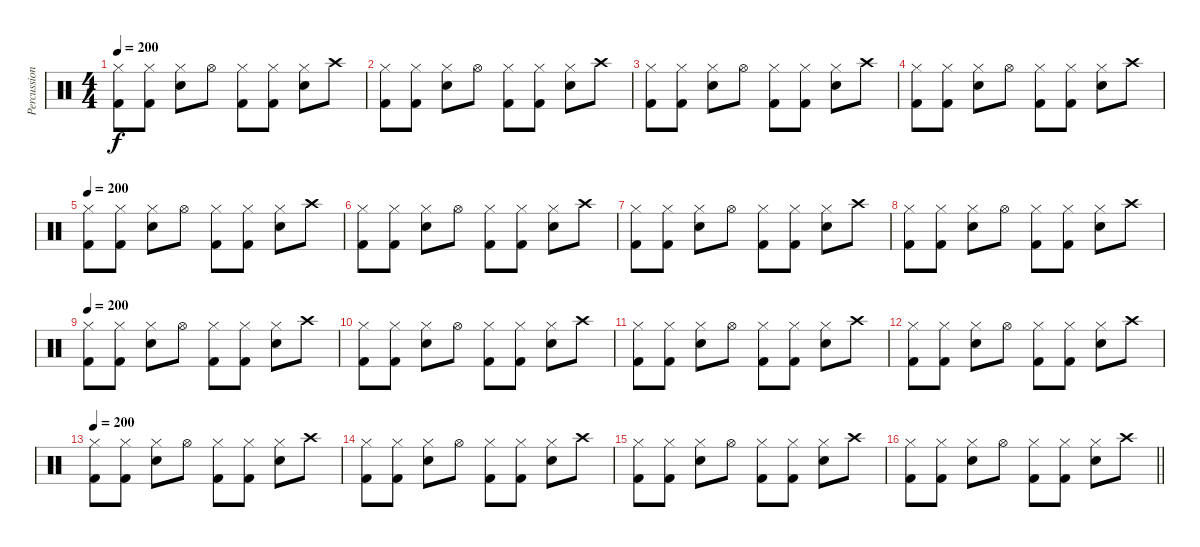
\track ("Percussion" "Percussion") {instrument percussion}
\staff {score}
\articulation defaults
\ts (4 4)
\tempo 200
\clef neutral
\ks c
("Hi-Hat (closed)" "Kick (hit) 2").8{dy f} ("Hi-Hat (closed)" "Kick (hit) 2").8 ("Hi-Hat (closed)" "Snare (hit) 2").8 "Hi-Hat (open)".8 ("Hi-Hat (closed)" "Kick (hit) 2").8 ("Hi-Hat (closed)" "Kick (hit) 2").8 ("Hi-Hat (closed)" "Snare (hit) 2").8 "Crash high (hit)".8 |
("Hi-Hat (closed)" "Kick (hit) 2").8 ("Hi-Hat (closed)" "Kick (hit) 2").8 ("Hi-Hat (closed)" "Snare (hit) 2").8 "Hi-Hat (open)".8 ("Hi-Hat (closed)" "Kick (hit) 2").8 ("Hi-Hat (closed)" "Kick (hit) 2").8 ("Hi-Hat (closed)" "Snare (hit) 2").8 "Crash high (hit)".8 |
("Hi-Hat (closed)" "Kick (hit) 2").8 ("Hi-Hat (closed)" "Kick (hit) 2").8 ("Hi-Hat (closed)" "Snare (hit) 2").8 "Hi-Hat (open)".8 ("Hi-Hat (closed)" "Kick (hit) 2").8 ("Hi-Hat (closed)" "Kick (hit) 2").8 ("Hi-Hat (closed)" "Snare (hit) 2").8 "Crash high (hit)".8 |
("Hi-Hat (closed)" "Kick (hit) 2").8 ("Hi-Hat (closed)" "Kick (hit) 2").8 ("Hi-Hat (closed)" "Snare (hit) 2").8 "Hi-Hat (open)".8 ("Hi-Hat (closed)" "Kick (hit) 2").8 ("Hi-Hat (closed)" "Kick (hit) 2").8 ("Hi-Hat (closed)" "Snare (hit) 2").8 "Crash high (hit)".8 |
\tempo 200
("Hi-Hat (closed)" "Kick (hit) 2").8 ("Hi-Hat (closed)" "Kick (hit) 2").8 ("Hi-Hat (closed)" "Snare (hit) 2").8 "Hi-Hat (open)".8 ("Hi-Hat (closed)" "Kick (hit) 2").8 ("Hi-Hat (closed)" "Kick (hit) 2").8 ("Hi-Hat (closed)" "Snare (hit) 2").8 "Crash high (hit)".8 |
("Hi-Hat (closed)" "Kick (hit) 2").8 ("Hi-Hat (closed)" "Kick (hit) 2").8 ("Hi-Hat (closed)" "Snare (hit) 2").8 "Hi-Hat (open)".8 ("Hi-Hat (closed)" "Kick (hit) 2").8 ("Hi-Hat (closed)" "Kick (hit) 2").8 ("Hi-Hat (closed)" "Snare (hit) 2").8 "Crash high (hit)".8 |
("Hi-Hat (closed)" "Kick (hit) 2").8 ("Hi-Hat (closed)" "Kick (hit) 2").8 ("Hi-Hat (closed)" "Snare (hit) 2").8 "Hi-Hat (open)".8 ("Hi-Hat (closed)" "Kick (hit) 2").8 ("Hi-Hat (closed)" "Kick (hit) 2").8 ("Hi-Hat (closed)" "Snare (hit) 2").8 "Crash high (hit)".8 |
("Hi-Hat (closed)" "Kick (hit) 2").8 ("Hi-Hat (closed)" "Kick (hit) 2").8 ("Hi-Hat (closed)" "Snare (hit) 2").8 "Hi-Hat (open)".8 ("Hi-Hat (closed)" "Kick (hit) 2").8 ("Hi-Hat (closed)" "Kick (hit) 2").8 ("Hi-Hat (closed)" "Snare (hit) 2").8 "Crash high (hit)".8 |
\tempo 200
("Hi-Hat (closed)" "Kick (hit) 2").8 ("Hi-Hat (closed)" "Kick (hit) 2").8 ("Hi-Hat (closed)" "Snare (hit) 2").8 "Hi-Hat (open)".8 ("Hi-Hat (closed)" "Kick (hit) 2").8 ("Hi-Hat (closed)" "Kick (hit) 2").8 ("Hi-Hat (closed)" "Snare (hit) 2").8 "Crash high (hit)".8 |
("Hi-Hat (closed)" "Kick (hit) 2").8 ("Hi-Hat (closed)" "Kick (hit) 2").8 ("Hi-Hat (closed)" "Snare (hit) 2").8 "Hi-Hat (open)".8 ("Hi-Hat (closed)" "Kick (hit) 2").8 ("Hi-Hat (closed)" "Kick (hit) 2").8 ("Hi-Hat (closed)" "Snare (hit) 2").8 "Crash high (hit)".8 |
("Hi-Hat (closed)" "Kick (hit) 2").8 ("Hi-Hat (closed)" "Kick (hit) 2").8 ("Hi-Hat (closed)" "Snare (hit) 2").8 "Hi-Hat (open)".8 ("Hi-Hat (closed)" "Kick (hit) 2").8 ("Hi-Hat (closed)" "Kick (hit) 2").8 ("Hi-Hat (closed)" "Snare (hit) 2").8 "Crash high (hit)".8 |
("Hi-Hat (closed)" "Kick (hit) 2").8 ("Hi-Hat (closed)" "Kick (hit) 2").8 ("Hi-Hat (closed)" "Snare (hit) 2").8 "Hi-Hat (open)".8 ("Hi-Hat (closed)" "Kick (hit) 2").8 ("Hi-Hat (closed)" "Kick (hit) 2").8 ("Hi-Hat (closed)" "Snare (hit) 2").8 "Crash high (hit)".8 |
\tempo 200
("Hi-Hat (closed)" "Kick (hit) 2").8 ("Hi-Hat (closed)" "Kick (hit) 2").8 ("Hi-Hat (closed)" "Snare (hit) 2").8 "Hi-Hat (open)".8 ("Hi-Hat (closed)" "Kick (hit) 2").8 ("Hi-Hat (closed)" "Kick (hit) 2").8 ("Hi-Hat (closed)" "Snare (hit) 2").8 "Crash high (hit)".8 |
("Hi-Hat (closed)" "Kick (hit) 2").8 ("Hi-Hat (closed)" "Kick (hit) 2").8 ("Hi-Hat (closed)" "Snare (hit) 2").8 "Hi-Hat (open)".8 ("Hi-Hat (closed)" "Kick (hit) 2").8 ("Hi-Hat (closed)" "Kick (hit) 2").8 ("Hi-Hat (closed)" "Snare (hit) 2").8 "Crash high (hit)".8 |
("Hi-Hat (closed)" "Kick (hit) 2").8 ("Hi-Hat (closed)" "Kick (hit) 2").8 ("Hi-Hat (closed)" "Snare (hit) 2").8 "Hi-Hat (open)".8 ("Hi-Hat (closed)" "Kick (hit) 2").8 ("Hi-Hat (closed)" "Kick (hit) 2").8 ("Hi-Hat (closed)" "Snare (hit) 2").8 "Crash high (hit)".8 |
\barLineRight lightlight
("Hi-Hat (closed)" "Kick (hit) 2").8 ("Hi-Hat (closed)" "Kick (hit) 2").8 ("Hi-Hat (closed)" "Snare (hit) 2").8 "Hi-Hat (open)".8 ("Hi-Hat (closed)" "Kick (hit) 2").8 ("Hi-Hat (closed)" "Kick (hit) 2").8 ("Hi-Hat (closed)" "Snare (hit) 2").8 "Crash high (hit)".8
